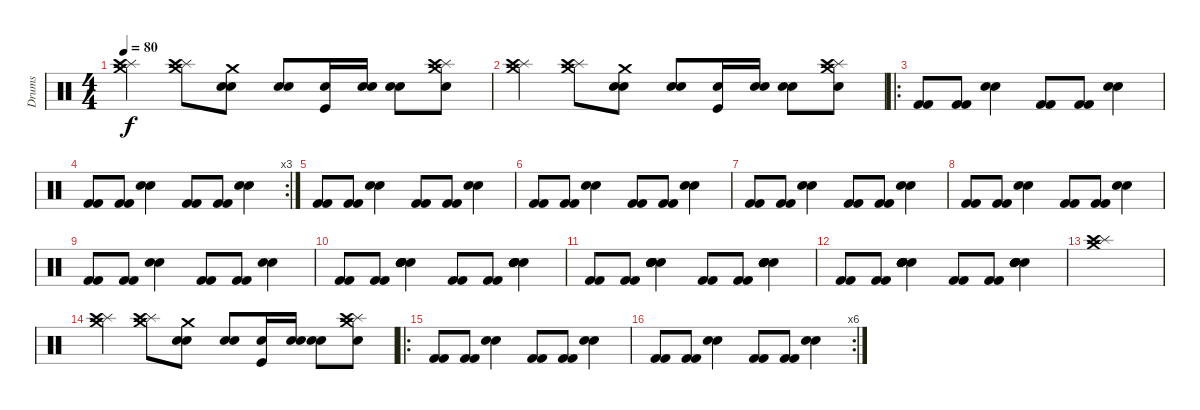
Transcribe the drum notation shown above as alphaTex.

\track ("Drums" "Drums") {instrument percussion}
\staff {score}
\articulation defaults
\ts (4 4)
\tempo 80
\clef neutral
\ks c
("Crash medium (hit)" "Splash (hit)" "Crash high (hit)").4{dy f} ("Crash medium (hit)" "Splash (hit)" "Crash high (hit)").8 ("Crash medium (hit)" "Metronome (bell)" "Electric Snare (hit)").8 ("Metronome (bell)" "Electric Snare (hit)").8 ("Kick (hit)" "Electric Snare (hit)").16 ("Metronome (bell)" "Electric Snare (hit)").16 ("Metronome (bell)" "Electric Snare (hit)").8 ("Crash medium (hit)" "Splash (hit)" "Crash high (hit)" "Electric Snare (hit)").8 |
("Crash medium (hit)" "Splash (hit)" "Crash high (hit)").4 ("Crash medium (hit)" "Splash (hit)" "Crash high (hit)").8 ("Crash medium (hit)" "Metronome (bell)" "Electric Snare (hit)").8 ("Metronome (bell)" "Electric Snare (hit)").8 ("Kick (hit)" "Electric Snare (hit)").16 ("Metronome (bell)" "Electric Snare (hit)").16 ("Metronome (bell)" "Electric Snare (hit)").8 ("Crash medium (hit)" "Splash (hit)" "Crash high (hit)" "Electric Snare (hit)").8 |
\ro
("Kick (hit) 2" "Kick (hit) 2").8 ("Kick (hit) 2" "Kick (hit) 2").8 ("Electric Snare (hit)" "Electric Snare (hit)").4 ("Kick (hit) 2" "Kick (hit) 2").8 ("Kick (hit) 2" "Kick (hit) 2").8 ("Electric Snare (hit)" "Electric Snare (hit)").4 |
\rc 3
("Kick (hit) 2" "Kick (hit) 2").8 ("Kick (hit) 2" "Kick (hit) 2").8 ("Electric Snare (hit)" "Electric Snare (hit)").4 ("Kick (hit) 2" "Kick (hit) 2").8 ("Kick (hit) 2" "Kick (hit) 2").8 ("Electric Snare (hit)" "Electric Snare (hit)").4 |
("Kick (hit) 2" "Kick (hit) 2").8 ("Kick (hit) 2" "Kick (hit) 2").8 ("Electric Snare (hit)" "Electric Snare (hit)").4 ("Kick (hit) 2" "Kick (hit) 2").8 ("Kick (hit) 2" "Kick (hit) 2").8 ("Electric Snare (hit)" "Electric Snare (hit)").4 |
("Kick (hit) 2" "Kick (hit) 2").8 ("Kick (hit) 2" "Kick (hit) 2").8 ("Electric Snare (hit)" "Electric Snare (hit)").4 ("Kick (hit) 2" "Kick (hit) 2").8 ("Kick (hit) 2" "Kick (hit) 2").8 ("Electric Snare (hit)" "Electric Snare (hit)").4 |
("Kick (hit) 2" "Kick (hit) 2").8 ("Kick (hit) 2" "Kick (hit) 2").8 ("Electric Snare (hit)" "Electric Snare (hit)").4 ("Kick (hit) 2" "Kick (hit) 2").8 ("Kick (hit) 2" "Kick (hit) 2").8 ("Electric Snare (hit)" "Electric Snare (hit)").4 |
("Kick (hit) 2" "Kick (hit) 2").8 ("Kick (hit) 2" "Kick (hit) 2").8 ("Electric Snare (hit)" "Electric Snare (hit)").4 ("Kick (hit) 2" "Kick (hit) 2").8 ("Kick (hit) 2" "Kick (hit) 2").8 ("Electric Snare (hit)" "Electric Snare (hit)").4 |
("Kick (hit) 2" "Kick (hit) 2").8 ("Kick (hit) 2" "Kick (hit) 2").8 ("Electric Snare (hit)" "Electric Snare (hit)").4 ("Kick (hit) 2" "Kick (hit) 2").8 ("Kick (hit) 2" "Kick (hit) 2").8 ("Electric Snare (hit)" "Electric Snare (hit)").4 |
("Kick (hit) 2" "Kick (hit) 2").8 ("Kick (hit) 2" "Kick (hit) 2").8 ("Electric Snare (hit)" "Electric Snare (hit)" "Electric Snare (hit)" "Electric Snare (hit)" "Electric Snare (hit)").4 ("Kick (hit) 2" "Kick (hit) 2").8 ("Kick (hit) 2" "Kick (hit) 2").8 ("Electric Snare (hit)" "Electric Snare (hit)" "Electric Snare (hit)" "Electric Snare (hit)" "Electric Snare (hit)").4 |
("Kick (hit) 2" "Kick (hit) 2").8 ("Kick (hit) 2" "Kick (hit) 2").8 ("Electric Snare (hit)" "Electric Snare (hit)" "Electric Snare (hit)" "Electric Snare (hit)" "Electric Snare (hit)" "Electric Snare (hit)").4 ("Kick (hit) 2" "Kick (hit) 2").8 ("Kick (hit) 2" "Kick (hit) 2").8 ("Electric Snare (hit)" "Electric Snare (hit)" "Electric Snare (hit)" "Electric Snare (hit)" "Electric Snare (hit)" "Electric Snare (hit)").4 |
("Kick (hit) 2" "Kick (hit) 2").8 ("Kick (hit) 2" "Kick (hit) 2").8 ("Electric Snare (hit)" "Electric Snare (hit)" "Electric Snare (hit)" "Electric Snare (hit)" "Electric Snare (hit)" "Electric Snare (hit)").4 ("Kick (hit) 2" "Kick (hit) 2").8 ("Kick (hit) 2" "Kick (hit) 2").8 ("Electric Snare (hit)" "Electric Snare (hit)" "Electric Snare (hit)" "Electric Snare (hit)" "Electric Snare (hit)" "Electric Snare (hit)").4 |
("Crash medium (hit)" "Splash (hit)" "Crash high (hit)").1 |
("Crash medium (hit)" "Splash (hit)" "Crash high (hit)").4 ("Crash medium (hit)" "Splash (hit)" "Crash high (hit)").8 ("Crash medium (hit)" "Metronome (bell)" "Electric Snare (hit)").8 ("Metronome (bell)" "Electric Snare (hit)").8 ("Kick (hit)" "Electric Snare (hit)").16 ("Metronome (bell)" "Electric Snare (hit)").16 ("Metronome (bell)" "Electric Snare (hit)").8 ("Crash medium (hit)" "Splash (hit)" "Crash high (hit)" "Electric Snare (hit)").8 |
\ro
("Kick (hit) 2" "Kick (hit) 2").8 ("Kick (hit) 2" "Kick (hit) 2").8 ("Electric Snare (hit)" "Electric Snare (hit)").4 ("Kick (hit) 2" "Kick (hit) 2").8 ("Kick (hit) 2" "Kick (hit) 2").8 ("Electric Snare (hit)" "Electric Snare (hit)").4 |
\rc 6
("Kick (hit) 2" "Kick (hit) 2").8 ("Kick (hit) 2" "Kick (hit) 2").8 ("Electric Snare (hit)" "Electric Snare (hit)").4 ("Kick (hit) 2" "Kick (hit) 2").8 ("Kick (hit) 2" "Kick (hit) 2").8 ("Electric Snare (hit)" "Electric Snare (hit)").4
